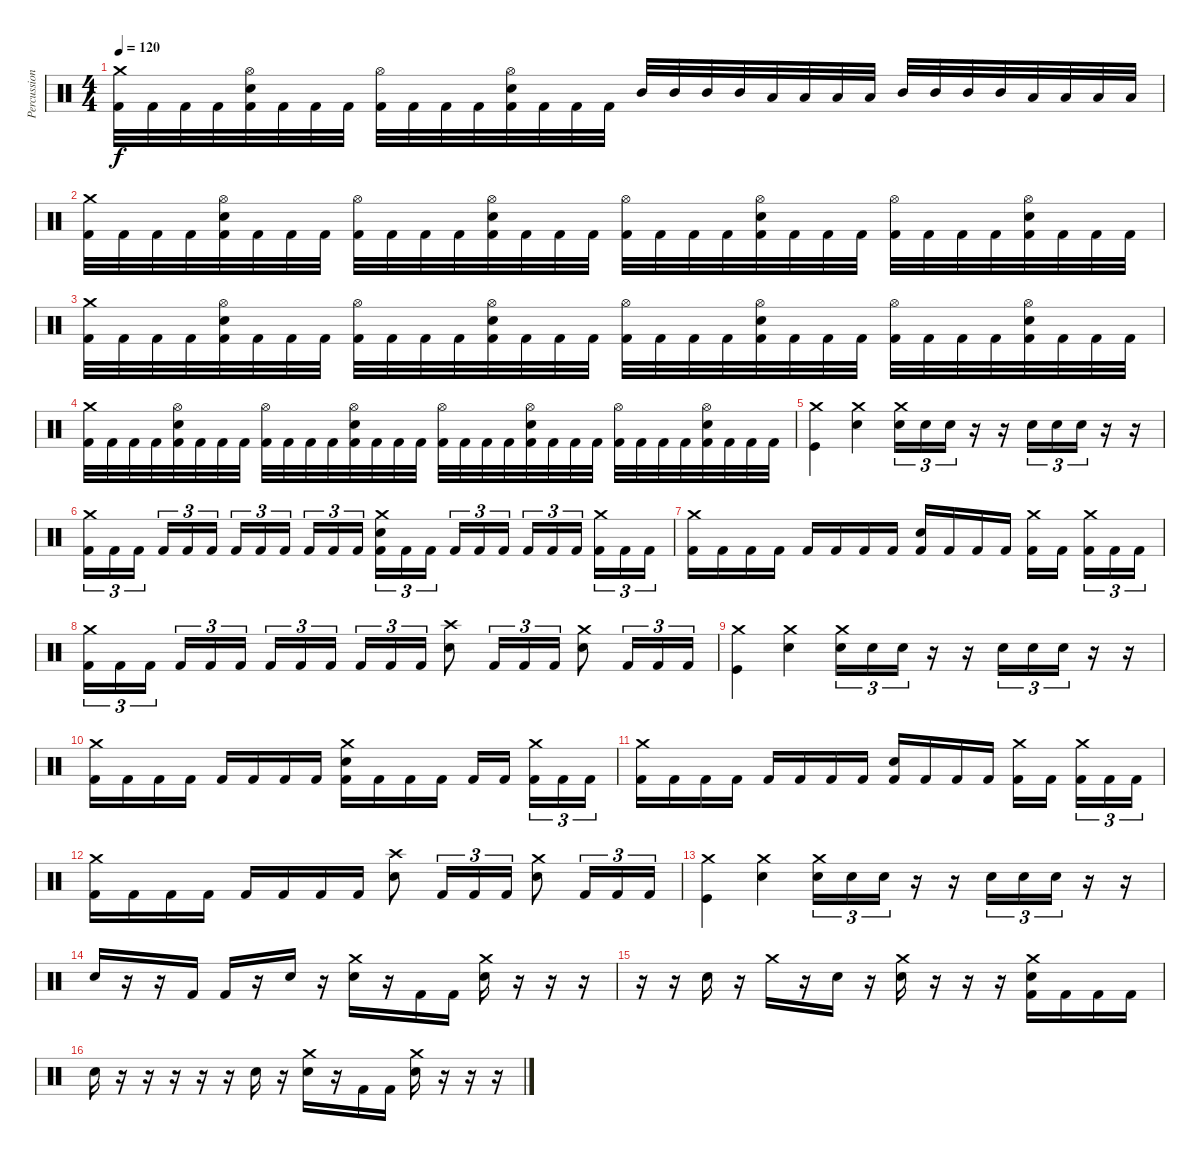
\track ("Percussion" "Percussion") {instrument percussion}
\staff {score}
\articulation defaults
\ts (4 4)
\tempo 120
\clef neutral
\ks c
("Crash medium (hit)" "Kick (hit) 2").32{dy f} "Kick (hit) 2".32 "Kick (hit) 2".32 "Kick (hit) 2".32 ("Hi-Hat (open)" "Kick (hit) 2" "Electric Snare (hit)").32 "Kick (hit) 2".32 "Kick (hit) 2".32 "Kick (hit) 2".32 ("Hi-Hat (open)" "Kick (hit) 2").32 "Kick (hit) 2".32 "Kick (hit) 2".32 "Kick (hit) 2".32 ("Hi-Hat (open)" "Kick (hit) 2" "Electric Snare (hit)").32 "Kick (hit) 2".32 "Kick (hit) 2".32 "Kick (hit) 2".32 "Mid Tom (hit)".32 "Mid Tom (hit)".32 "Mid Tom (hit)".32 "Mid Tom (hit)".32 "Low Tom (hit)".32 "Low Tom (hit)".32 "Low Tom (hit)".32 "Low Tom (hit)".32 "Mid Tom (hit)".32 "Mid Tom (hit)".32 "Mid Tom (hit)".32 "Mid Tom (hit)".32 "Low Tom (hit)".32 "Low Tom (hit)".32 "Low Tom (hit)".32 "Low Tom (hit)".32 |
("Crash medium (hit)" "Kick (hit) 2").32 "Kick (hit) 2".32 "Kick (hit) 2".32 "Kick (hit) 2".32 ("Hi-Hat (open)" "Kick (hit) 2" "Electric Snare (hit)").32 "Kick (hit) 2".32 "Kick (hit) 2".32 "Kick (hit) 2".32 ("Hi-Hat (open)" "Kick (hit) 2").32 "Kick (hit) 2".32 "Kick (hit) 2".32 "Kick (hit) 2".32 ("Hi-Hat (open)" "Kick (hit) 2" "Electric Snare (hit)").32 "Kick (hit) 2".32 "Kick (hit) 2".32 "Kick (hit) 2".32 ("Hi-Hat (open)" "Kick (hit) 2").32 "Kick (hit) 2".32 "Kick (hit) 2".32 "Kick (hit) 2".32 ("Hi-Hat (open)" "Kick (hit) 2" "Electric Snare (hit)").32 "Kick (hit) 2".32 "Kick (hit) 2".32 "Kick (hit) 2".32 ("Hi-Hat (open)" "Kick (hit) 2").32 "Kick (hit) 2".32 "Kick (hit) 2".32 "Kick (hit) 2".32 ("Hi-Hat (open)" "Kick (hit) 2" "Electric Snare (hit)").32 "Kick (hit) 2".32 "Kick (hit) 2".32 "Kick (hit) 2".32 |
("Crash medium (hit)" "Kick (hit) 2").32 "Kick (hit) 2".32 "Kick (hit) 2".32 "Kick (hit) 2".32 ("Hi-Hat (open)" "Kick (hit) 2" "Electric Snare (hit)").32 "Kick (hit) 2".32 "Kick (hit) 2".32 "Kick (hit) 2".32 ("Hi-Hat (open)" "Kick (hit) 2").32 "Kick (hit) 2".32 "Kick (hit) 2".32 "Kick (hit) 2".32 ("Hi-Hat (open)" "Kick (hit) 2" "Electric Snare (hit)").32 "Kick (hit) 2".32 "Kick (hit) 2".32 "Kick (hit) 2".32 ("Hi-Hat (open)" "Kick (hit) 2").32 "Kick (hit) 2".32 "Kick (hit) 2".32 "Kick (hit) 2".32 ("Hi-Hat (open)" "Kick (hit) 2" "Electric Snare (hit)").32 "Kick (hit) 2".32 "Kick (hit) 2".32 "Kick (hit) 2".32 ("Hi-Hat (open)" "Kick (hit) 2").32 "Kick (hit) 2".32 "Kick (hit) 2".32 "Kick (hit) 2".32 ("Hi-Hat (open)" "Kick (hit) 2" "Electric Snare (hit)").32 "Kick (hit) 2".32 "Kick (hit) 2".32 "Kick (hit) 2".32 |
("Crash medium (hit)" "Kick (hit) 2").32 "Kick (hit) 2".32 "Kick (hit) 2".32 "Kick (hit) 2".32 ("Hi-Hat (open)" "Kick (hit) 2" "Electric Snare (hit)").32 "Kick (hit) 2".32 "Kick (hit) 2".32 "Kick (hit) 2".32 ("Hi-Hat (open)" "Kick (hit) 2").32 "Kick (hit) 2".32 "Kick (hit) 2".32 "Kick (hit) 2".32 ("Hi-Hat (open)" "Kick (hit) 2" "Electric Snare (hit)").32 "Kick (hit) 2".32 "Kick (hit) 2".32 "Kick (hit) 2".32 ("Hi-Hat (open)" "Kick (hit) 2").32 "Kick (hit) 2".32 "Kick (hit) 2".32 "Kick (hit) 2".32 ("Hi-Hat (open)" "Kick (hit) 2" "Electric Snare (hit)").32 "Kick (hit) 2".32 "Kick (hit) 2".32 "Kick (hit) 2".32 ("Hi-Hat (open)" "Kick (hit) 2").32 "Kick (hit) 2".32 "Kick (hit) 2".32 "Kick (hit) 2".32 ("Hi-Hat (open)" "Kick (hit) 2" "Electric Snare (hit)").32 "Kick (hit) 2".32 "Kick (hit) 2".32 "Kick (hit) 2".32 |
("Crash medium (hit)" "Kick (hit)").4 ("Crash medium (hit)" "Electric Snare (hit)").4 ("Crash medium (hit)" "Electric Snare (hit)").16{tu (3 2)} "Electric Snare (hit)".16{tu (3 2)} "Electric Snare (hit)".16{tu (3 2)} r.16 r.16 "Electric Snare (hit)".16{tu (3 2)} "Electric Snare (hit)".16{tu (3 2)} "Electric Snare (hit)".16{tu (3 2)} r.16 r.16 |
("Crash medium (hit)" "Kick (hit) 2").16{tu (3 2)} "Kick (hit) 2".16{tu (3 2)} "Kick (hit) 2".16{tu (3 2) beam splitsecondary} "Kick (hit) 2".16{tu (3 2)} "Kick (hit) 2".16{tu (3 2)} "Kick (hit) 2".16{tu (3 2)} "Kick (hit) 2".16{tu (3 2)} "Kick (hit) 2".16{tu (3 2)} "Kick (hit) 2".16{tu (3 2) beam splitsecondary} "Kick (hit) 2".16{tu (3 2)} "Kick (hit) 2".16{tu (3 2)} "Kick (hit) 2".16{tu (3 2)} ("Crash medium (hit)" "Kick (hit) 2" "Electric Snare (hit)").16{tu (3 2)} "Kick (hit) 2".16{tu (3 2)} "Kick (hit) 2".16{tu (3 2) beam splitsecondary} "Kick (hit) 2".16{tu (3 2)} "Kick (hit) 2".16{tu (3 2)} "Kick (hit) 2".16{tu (3 2)} "Kick (hit) 2".16{tu (3 2)} "Kick (hit) 2".16{tu (3 2)} "Kick (hit) 2".16{tu (3 2) beam splitsecondary} ("Crash medium (hit)" "Kick (hit) 2").16{tu (3 2)} "Kick (hit) 2".16{tu (3 2)} "Kick (hit) 2".16{tu (3 2)} |
("Crash medium (hit)" "Kick (hit) 2").16 "Kick (hit) 2".16 "Kick (hit) 2".16 "Kick (hit) 2".16 "Kick (hit) 2".16 "Kick (hit) 2".16 "Kick (hit) 2".16 "Kick (hit) 2".16 ("Kick (hit) 2" "Electric Snare (hit)").16 "Kick (hit) 2".16 "Kick (hit) 2".16 "Kick (hit) 2".16 ("Crash medium (hit)" "Kick (hit) 2").16 "Kick (hit) 2".16{beam splitsecondary} ("Crash medium (hit)" "Kick (hit) 2").16{tu (3 2)} "Kick (hit) 2".16{tu (3 2)} "Kick (hit) 2".16{tu (3 2)} |
("Crash medium (hit)" "Kick (hit) 2").16{tu (3 2)} "Kick (hit) 2".16{tu (3 2)} "Kick (hit) 2".16{tu (3 2) beam splitsecondary} "Kick (hit) 2".16{tu (3 2)} "Kick (hit) 2".16{tu (3 2)} "Kick (hit) 2".16{tu (3 2)} "Kick (hit) 2".16{tu (3 2)} "Kick (hit) 2".16{tu (3 2)} "Kick (hit) 2".16{tu (3 2) beam splitsecondary} "Kick (hit) 2".16{tu (3 2)} "Kick (hit) 2".16{tu (3 2)} "Kick (hit) 2".16{tu (3 2)} ("Crash high (hit)" "Snare (hit) 2").8 "Kick (hit) 2".16{tu (3 2)} "Kick (hit) 2".16{tu (3 2)} "Kick (hit) 2".16{tu (3 2)} ("Crash medium (hit)" "Snare (hit) 2").8 "Kick (hit) 2".16{tu (3 2)} "Kick (hit) 2".16{tu (3 2)} "Kick (hit) 2".16{tu (3 2)} |
("Crash medium (hit)" "Kick (hit)").4 ("Crash medium (hit)" "Electric Snare (hit)").4 ("Crash medium (hit)" "Electric Snare (hit)").16{tu (3 2)} "Electric Snare (hit)".16{tu (3 2)} "Electric Snare (hit)".16{tu (3 2)} r.16 r.16 "Electric Snare (hit)".16{tu (3 2)} "Electric Snare (hit)".16{tu (3 2)} "Electric Snare (hit)".16{tu (3 2)} r.16 r.16 |
("Crash medium (hit)" "Kick (hit) 2").16 "Kick (hit) 2".16 "Kick (hit) 2".16 "Kick (hit) 2".16 "Kick (hit) 2".16 "Kick (hit) 2".16 "Kick (hit) 2".16 "Kick (hit) 2".16 ("Crash medium (hit)" "Kick (hit) 2" "Electric Snare (hit)").16 "Kick (hit) 2".16 "Kick (hit) 2".16 "Kick (hit) 2".16 "Kick (hit) 2".16 "Kick (hit) 2".16{beam splitsecondary} ("Crash medium (hit)" "Kick (hit) 2").16{tu (3 2)} "Kick (hit) 2".16{tu (3 2)} "Kick (hit) 2".16{tu (3 2)} |
("Crash medium (hit)" "Kick (hit) 2").16 "Kick (hit) 2".16 "Kick (hit) 2".16 "Kick (hit) 2".16 "Kick (hit) 2".16 "Kick (hit) 2".16 "Kick (hit) 2".16 "Kick (hit) 2".16 ("Kick (hit) 2" "Electric Snare (hit)").16 "Kick (hit) 2".16 "Kick (hit) 2".16 "Kick (hit) 2".16 ("Crash medium (hit)" "Kick (hit) 2").16 "Kick (hit) 2".16{beam splitsecondary} ("Crash medium (hit)" "Kick (hit) 2").16{tu (3 2)} "Kick (hit) 2".16{tu (3 2)} "Kick (hit) 2".16{tu (3 2)} |
("Crash medium (hit)" "Kick (hit) 2").16 "Kick (hit) 2".16 "Kick (hit) 2".16 "Kick (hit) 2".16 "Kick (hit) 2".16 "Kick (hit) 2".16 "Kick (hit) 2".16 "Kick (hit) 2".16 ("Crash high (hit)" "Snare (hit) 2").8 "Kick (hit) 2".16{tu (3 2)} "Kick (hit) 2".16{tu (3 2)} "Kick (hit) 2".16{tu (3 2)} ("Crash medium (hit)" "Snare (hit) 2").8 "Kick (hit) 2".16{tu (3 2)} "Kick (hit) 2".16{tu (3 2)} "Kick (hit) 2".16{tu (3 2)} |
("Crash medium (hit)" "Kick (hit)").4 ("Crash medium (hit)" "Electric Snare (hit)").4 ("Crash medium (hit)" "Electric Snare (hit)").16{tu (3 2)} "Electric Snare (hit)".16{tu (3 2)} "Electric Snare (hit)".16{tu (3 2)} r.16 r.16 "Electric Snare (hit)".16{tu (3 2)} "Electric Snare (hit)".16{tu (3 2)} "Electric Snare (hit)".16{tu (3 2)} r.16 r.16 |
"Snare (hit) 2".16 r.16 r.16 "Kick (hit) 2".16 "Kick (hit) 2".16 r.16 "Snare (hit) 2".16 r.16 ("Crash medium (hit)" "Snare (hit) 2").16 r.16 "Kick (hit) 2".16 "Kick (hit) 2".16 ("Crash medium (hit)" "Snare (hit) 2").16 r.16 r.16 r.16 |
r.16 r.16 "Snare (hit) 2".16 r.16 "Crash medium (hit)".16 r.16 "Snare (hit) 2".16 r.16 ("Crash medium (hit)" "Snare (hit) 2").16 r.16 r.16 r.16 ("Crash medium (hit)" "Snare (hit) 2" "Kick (hit) 2").16 "Kick (hit) 2".16 "Kick (hit) 2".16 "Kick (hit) 2".16 |
"Snare (hit) 2".16 r.16 r.16 r.16 r.16 r.16 "Snare (hit) 2".16 r.16 ("Crash medium (hit)" "Snare (hit) 2").16 r.16 "Kick (hit) 2".16 "Kick (hit) 2".16 ("Crash medium (hit)" "Snare (hit) 2").16 r.16 r.16 r.16
